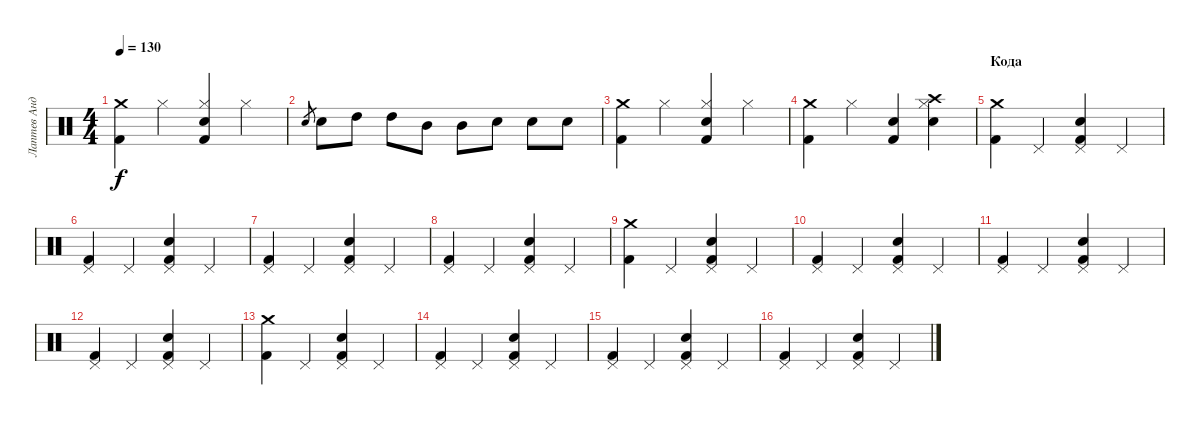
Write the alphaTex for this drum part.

\track ("Лаптев Андрей" "Лаптев Анд") {instrument percussion}
\staff {score}
\articulation defaults
\ts (4 4)
\tempo 130
\clef neutral
\ks c
("Crash medium (hit)" "Kick (hit) 2").4{dy f} "Hi-Hat (closed)".4 ("Kick (hit) 2" "Electric Snare (hit)" "Hi-Hat (closed)").4 "Hi-Hat (closed)".4 |
"Electric Snare (hit)".8{gr} "Electric Snare (hit)".8 "High Tom (hit)".8 "High Tom (hit)".8 "Mid Tom (hit)".8 "Mid Tom (hit)".8 "Electric Snare (hit)".8 "Electric Snare (hit)".8 "Electric Snare (hit)".8 |
("Crash medium (hit)" "Kick (hit) 2").4 "Hi-Hat (closed)".4 ("Kick (hit) 2" "Electric Snare (hit)" "Hi-Hat (closed)").4 "Hi-Hat (closed)".4 |
("Crash medium (hit)" "Kick (hit) 2").4 "Hi-Hat (closed)".4 ("Kick (hit) 2" "Electric Snare (hit)").4 ("Hi-Hat (closed)" "Electric Snare (hit)" "Crash high (hit)").4 |
\section ("" "Кода")
("Crash medium (hit)" "Kick (hit) 2").4 "Pedal Hi-Hat (hit)".4 ("Pedal Hi-Hat (hit)" "Electric Snare (hit)" "Kick (hit) 2").4 "Pedal Hi-Hat (hit)".4 |
("Kick (hit) 2" "Pedal Hi-Hat (hit)").4 "Pedal Hi-Hat (hit)".4 ("Pedal Hi-Hat (hit)" "Electric Snare (hit)" "Kick (hit) 2").4 "Pedal Hi-Hat (hit)".4 |
("Kick (hit) 2" "Pedal Hi-Hat (hit)").4 "Pedal Hi-Hat (hit)".4 ("Pedal Hi-Hat (hit)" "Electric Snare (hit)" "Kick (hit) 2").4 "Pedal Hi-Hat (hit)".4 |
("Kick (hit) 2" "Pedal Hi-Hat (hit)").4 "Pedal Hi-Hat (hit)".4 ("Pedal Hi-Hat (hit)" "Electric Snare (hit)" "Kick (hit) 2").4 "Pedal Hi-Hat (hit)".4 |
("Crash medium (hit)" "Kick (hit) 2").4 "Pedal Hi-Hat (hit)".4 ("Pedal Hi-Hat (hit)" "Electric Snare (hit)" "Kick (hit) 2").4 "Pedal Hi-Hat (hit)".4 |
("Kick (hit) 2" "Pedal Hi-Hat (hit)").4 "Pedal Hi-Hat (hit)".4 ("Pedal Hi-Hat (hit)" "Electric Snare (hit)" "Kick (hit) 2").4 "Pedal Hi-Hat (hit)".4 |
("Kick (hit) 2" "Pedal Hi-Hat (hit)").4 "Pedal Hi-Hat (hit)".4 ("Pedal Hi-Hat (hit)" "Electric Snare (hit)" "Kick (hit) 2").4 "Pedal Hi-Hat (hit)".4 |
("Kick (hit) 2" "Pedal Hi-Hat (hit)").4 "Pedal Hi-Hat (hit)".4 ("Pedal Hi-Hat (hit)" "Electric Snare (hit)" "Kick (hit) 2").4 "Pedal Hi-Hat (hit)".4 |
("Crash medium (hit)" "Kick (hit) 2").4 "Pedal Hi-Hat (hit)".4 ("Pedal Hi-Hat (hit)" "Electric Snare (hit)" "Kick (hit) 2").4 "Pedal Hi-Hat (hit)".4 |
("Kick (hit) 2" "Pedal Hi-Hat (hit)").4 "Pedal Hi-Hat (hit)".4 ("Pedal Hi-Hat (hit)" "Electric Snare (hit)" "Kick (hit) 2").4 "Pedal Hi-Hat (hit)".4 |
("Kick (hit) 2" "Pedal Hi-Hat (hit)").4 "Pedal Hi-Hat (hit)".4 ("Pedal Hi-Hat (hit)" "Electric Snare (hit)" "Kick (hit) 2").4 "Pedal Hi-Hat (hit)".4 |
("Kick (hit) 2" "Pedal Hi-Hat (hit)").4 "Pedal Hi-Hat (hit)".4 ("Pedal Hi-Hat (hit)" "Electric Snare (hit)" "Kick (hit) 2").4 "Pedal Hi-Hat (hit)".4
